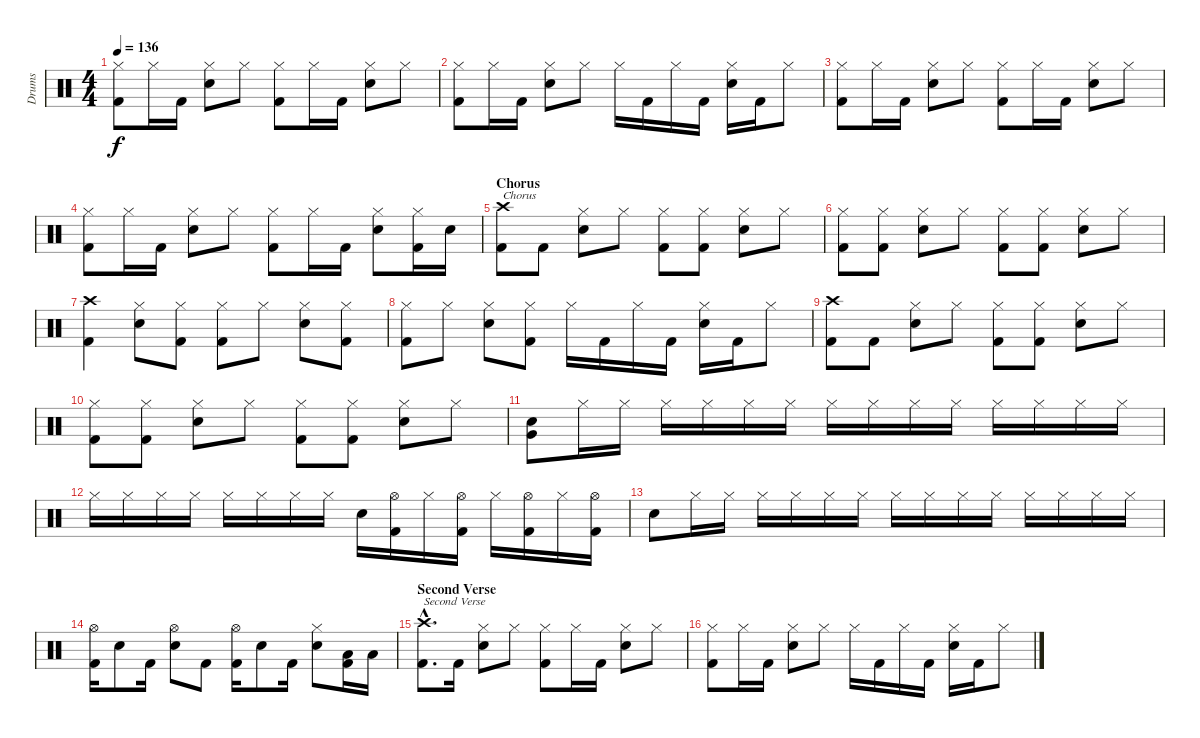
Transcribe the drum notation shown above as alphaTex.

\track ("Drums" "Drums") {instrument percussion}
\staff {score}
\articulation defaults
\ts (4 4)
\tempo 136
\clef neutral
\ks c
("Hi-Hat (closed)" "Kick (hit) 2").8{dy f} "Hi-Hat (closed)".16 "Kick (hit) 2".16 ("Hi-Hat (closed)" "Electric Snare (hit)").8 "Hi-Hat (closed)".8 ("Hi-Hat (closed)" "Kick (hit) 2").8 "Hi-Hat (closed)".16 "Kick (hit) 2".16 ("Hi-Hat (closed)" "Electric Snare (hit)").8 "Hi-Hat (closed)".8 |
("Hi-Hat (closed)" "Kick (hit) 2").8 "Hi-Hat (closed)".16 "Kick (hit) 2".16 ("Hi-Hat (closed)" "Electric Snare (hit)").8 "Hi-Hat (closed)".8 "Hi-Hat (closed)".16 "Kick (hit) 2".16 "Hi-Hat (closed)".16 "Kick (hit) 2".16 ("Hi-Hat (closed)" "Electric Snare (hit)").16 "Kick (hit) 2".16 "Hi-Hat (closed)".8 |
("Hi-Hat (closed)" "Kick (hit) 2").8 "Hi-Hat (closed)".16 "Kick (hit) 2".16 ("Hi-Hat (closed)" "Electric Snare (hit)").8 "Hi-Hat (closed)".8 ("Hi-Hat (closed)" "Kick (hit) 2").8 "Hi-Hat (closed)".16 "Kick (hit) 2".16 ("Hi-Hat (closed)" "Electric Snare (hit)").8 "Hi-Hat (closed)".8 |
("Hi-Hat (closed)" "Kick (hit) 2").8 "Hi-Hat (closed)".16 "Kick (hit) 2".16 ("Hi-Hat (closed)" "Electric Snare (hit)").8 "Hi-Hat (closed)".8 ("Hi-Hat (closed)" "Kick (hit) 2").8 "Hi-Hat (closed)".16 "Kick (hit) 2".16 ("Hi-Hat (closed)" "Electric Snare (hit)").8 ("Hi-Hat (closed)" "Kick (hit) 2").16 "Electric Snare (hit)".16 |
\section ("" "Chorus ")
("Crash high (hit)" "Kick (hit) 2").8{txt "Chorus"} "Kick (hit) 2".8 ("Hi-Hat (closed)" "Electric Snare (hit)").8 "Hi-Hat (closed)".8 ("Hi-Hat (closed)" "Kick (hit) 2").8 ("Hi-Hat (closed)" "Kick (hit) 2").8 ("Hi-Hat (closed)" "Electric Snare (hit)").8 "Hi-Hat (closed)".8 |
("Hi-Hat (closed)" "Kick (hit) 2").8 ("Hi-Hat (closed)" "Kick (hit) 2").8 ("Hi-Hat (closed)" "Electric Snare (hit)").8 "Hi-Hat (closed)".8 ("Hi-Hat (closed)" "Kick (hit) 2").8 ("Hi-Hat (closed)" "Kick (hit) 2").8 ("Hi-Hat (closed)" "Electric Snare (hit)").8 "Hi-Hat (closed)".8 |
("Crash high (hit)" "Kick (hit) 2").4 ("Hi-Hat (closed)" "Electric Snare (hit)").8 ("Hi-Hat (closed)" "Kick (hit) 2").8 ("Hi-Hat (closed)" "Kick (hit) 2").8 "Hi-Hat (closed)".8 ("Hi-Hat (closed)" "Electric Snare (hit)").8 ("Hi-Hat (closed)" "Kick (hit) 2").8 |
("Hi-Hat (closed)" "Kick (hit) 2").8 "Hi-Hat (closed)".8 ("Hi-Hat (closed)" "Electric Snare (hit)").8 ("Hi-Hat (closed)" "Kick (hit) 2").8 "Hi-Hat (closed)".16 "Kick (hit) 2".16 "Hi-Hat (closed)".16 "Kick (hit) 2".16 ("Hi-Hat (closed)" "Electric Snare (hit)").16 "Kick (hit) 2".16 "Hi-Hat (closed)".8 |
("Crash high (hit)" "Kick (hit) 2").8 "Kick (hit) 2".8 ("Hi-Hat (closed)" "Electric Snare (hit)").8 "Hi-Hat (closed)".8 ("Hi-Hat (closed)" "Kick (hit) 2").8 ("Hi-Hat (closed)" "Kick (hit) 2").8 ("Hi-Hat (closed)" "Electric Snare (hit)").8 "Hi-Hat (closed)".8 |
("Hi-Hat (closed)" "Kick (hit) 2").8 ("Hi-Hat (closed)" "Kick (hit) 2").8 ("Hi-Hat (closed)" "Electric Snare (hit)").8 "Hi-Hat (closed)".8 ("Hi-Hat (closed)" "Kick (hit) 2").8 ("Hi-Hat (closed)" "Kick (hit) 2").8 ("Hi-Hat (closed)" "Electric Snare (hit)").8 "Hi-Hat (closed)".8 |
("Electric Snare (hit)" "Very Low Tom (hit)").8 "Hi-Hat (closed)".16 "Hi-Hat (closed)".16 "Hi-Hat (closed)".16 "Hi-Hat (closed)".16 "Hi-Hat (closed)".16 "Hi-Hat (closed)".16 "Hi-Hat (closed)".16 "Hi-Hat (closed)".16 "Hi-Hat (closed)".16 "Hi-Hat (closed)".16 "Hi-Hat (closed)".16 "Hi-Hat (closed)".16 "Hi-Hat (closed)".16 "Hi-Hat (closed)".16 |
"Hi-Hat (closed)".16 "Hi-Hat (closed)".16 "Hi-Hat (closed)".16 "Hi-Hat (closed)".16 "Hi-Hat (closed)".16 "Hi-Hat (closed)".16 "Hi-Hat (closed)".16 "Hi-Hat (closed)".16 "Electric Snare (hit)".16 ("Hi-Hat (open)" "Kick (hit) 2").16 "Hi-Hat (closed)".16 ("Hi-Hat (open)" "Kick (hit) 2").16 "Hi-Hat (closed)".16 ("Hi-Hat (open)" "Kick (hit) 2").16 "Hi-Hat (closed)".16 ("Hi-Hat (open)" "Kick (hit) 2").16 |
"Electric Snare (hit)".8 "Hi-Hat (closed)".16 "Hi-Hat (closed)".16 "Hi-Hat (closed)".16 "Hi-Hat (closed)".16 "Hi-Hat (closed)".16 "Hi-Hat (closed)".16 "Hi-Hat (closed)".16 "Hi-Hat (closed)".16 "Hi-Hat (closed)".16 "Hi-Hat (closed)".16 "Hi-Hat (closed)".16 "Hi-Hat (closed)".16 "Hi-Hat (closed)".16 "Hi-Hat (closed)".16 |
("Hi-Hat (open)" "Kick (hit) 2").16 "Electric Snare (hit)".8 "Kick (hit) 2".16 ("Hi-Hat (open)" "Electric Snare (hit)").8 "Kick (hit) 2".8 ("Hi-Hat (open)" "Kick (hit) 2").16 "Electric Snare (hit)".8 "Kick (hit) 2".16 ("Hi-Hat (closed)" "Electric Snare (hit)").8 ("Low Tom (hit)" "Kick (hit) 2").16 "Low Tom (hit)".16 |
\section ("" "Second Verse")
("Crash high (hit)"{hac} "Kick (hit) 2"{hac}).8{d txt "Second Verse"} "Kick (hit) 2".16 ("Hi-Hat (closed)" "Electric Snare (hit)").8 "Hi-Hat (closed)".8 ("Hi-Hat (closed)" "Kick (hit) 2").8 "Hi-Hat (closed)".16 "Kick (hit) 2".16 ("Hi-Hat (closed)" "Electric Snare (hit)").8 "Hi-Hat (closed)".8 |
("Hi-Hat (closed)" "Kick (hit) 2").8 "Hi-Hat (closed)".16 "Kick (hit) 2".16 ("Hi-Hat (closed)" "Electric Snare (hit)").8 "Hi-Hat (closed)".8 "Hi-Hat (closed)".16 "Kick (hit) 2".16 "Hi-Hat (closed)".16 "Kick (hit) 2".16 ("Hi-Hat (closed)" "Electric Snare (hit)").16 "Kick (hit) 2".16 "Hi-Hat (closed)".8
